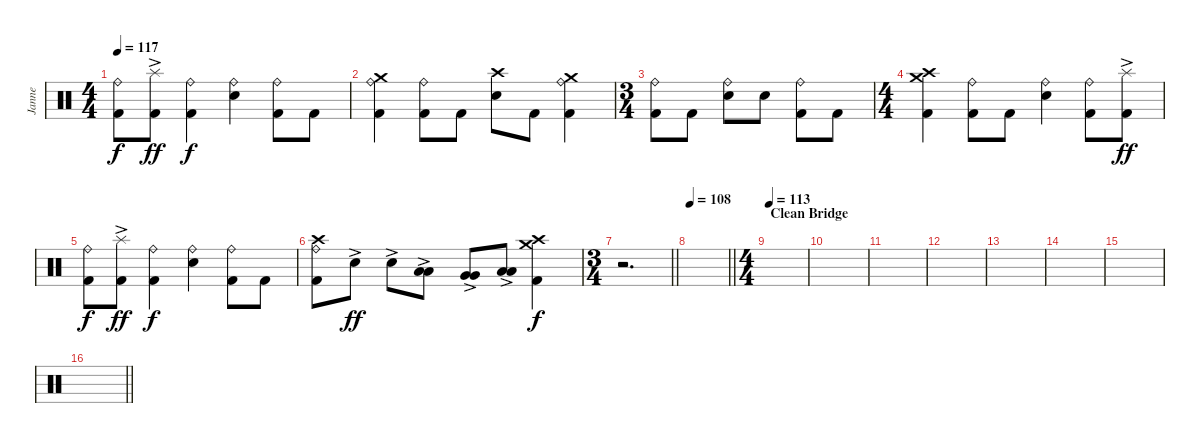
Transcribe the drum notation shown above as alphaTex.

\track ("Janne" "Janne") {instrument percussion}
\staff {score}
\articulation defaults
\ts (4 4)
\tempo 117
\clef neutral
\ks c
("Kick (hit) 2" "Ride (bell)").8{dy f} ("Kick (hit) 2" "Splash (hit)"{ac}).8{dy ff} ("Kick (hit) 2" "Ride (bell)").4{dy f} ("Snare (hit) 2" "Ride (bell)").4 ("Kick (hit) 2" "Ride (bell)").8 "Kick (hit) 2".8 |
("Kick (hit) 2" "Ride (bell)" "Crash medium (hit)").4 ("Kick (hit) 2" "Ride (bell)").8 "Kick (hit) 2".8 ("Snare (hit) 2" "Crash high (hit)").8 "Kick (hit) 2".8 ("Kick (hit) 2" "Ride (bell)" "Crash medium (hit)").4 |
\ts (3 4)
("Kick (hit) 2" "Ride (bell)").8 "Kick (hit) 2".8 ("Snare (hit) 2" "Ride (bell)").8 "Snare (hit) 2".8 ("Kick (hit) 2" "Ride (bell)").8 "Kick (hit) 2".8 |
\ts (4 4)
("Kick (hit) 2" "Crash medium (hit)" "Crash high (hit)").4 ("Kick (hit) 2" "Ride (bell)").8 "Kick (hit) 2".8 ("Snare (hit) 2" "Ride (bell)").4 ("Kick (hit) 2" "Ride (bell)").8 ("Kick (hit) 2" "Splash (hit)"{ac}).8{dy ff} |
("Kick (hit) 2" "Ride (bell)").8{dy f} ("Kick (hit) 2" "Splash (hit)"{ac}).8{dy ff} ("Kick (hit) 2" "Ride (bell)").4{dy f} ("Snare (hit) 2" "Ride (bell)").4 ("Kick (hit) 2" "Ride (bell)").8 "Kick (hit) 2".8 |
("Kick (hit) 2" "Ride (bell)" "Crash high (hit)").8 "Snare (hit) 2"{ac}.8{dy ff} "Snare (hit) 2"{ac}.8 ("Low Tom (hit)"{ac} "Low Tom (hit)"{ac}).8 ("Very Low Tom (hit)"{ac} "Very Low Tom (hit)"{ac}).8 ("Low Floor Tom (hit)"{ac} "Low Floor Tom (hit)"{ac}).8 ("Kick (hit) 2" "Crash high (hit)" "Crash medium (hit)").4{dy f} |
\ts (3 4)
\barLineRight lightlight
r.2{d} |
\section ("" "")
\tempo 108
\barLineRight lightlight
|
\ts (4 4)
\section ("" "Clean Bridge")
\tempo 113
|
|
|
|
|
|
|
\barLineRight lightlight
